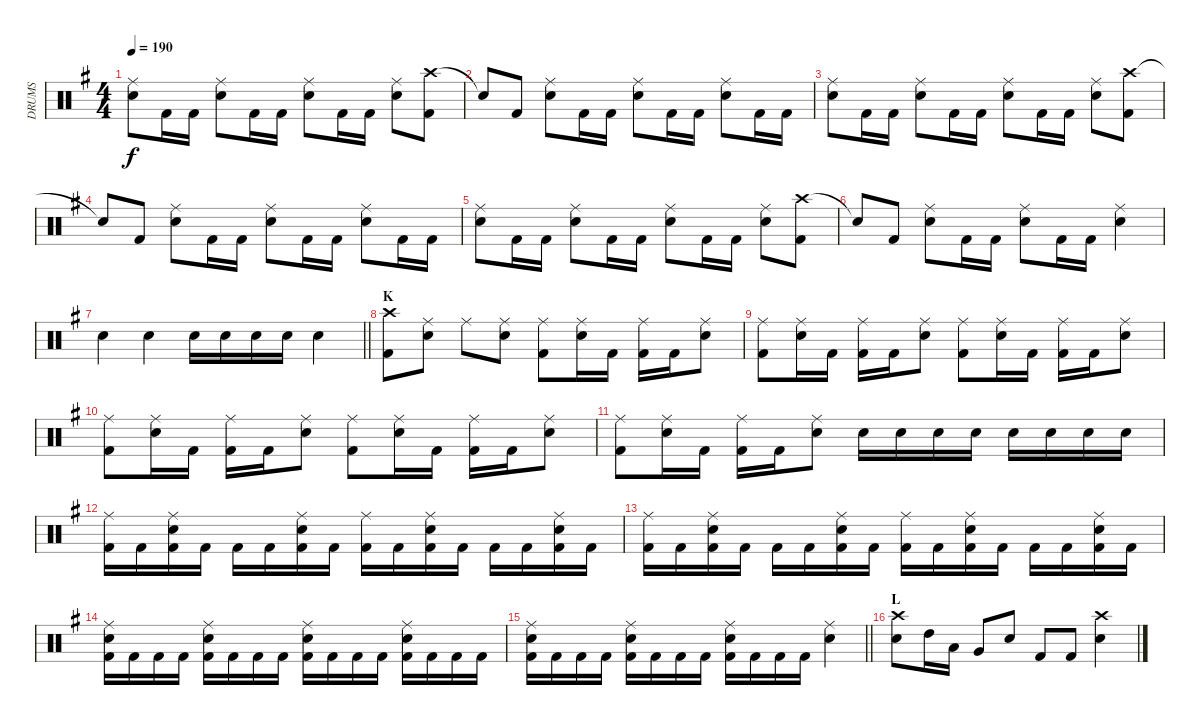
\track ("DRUMS" "DRUMS") {instrument percussion}
\staff {score}
\articulation defaults
\ts (4 4)
\tempo 190
\clef neutral
\ks g
("Ride (middle)" "Snare (hit) 2").8{dy f} "Kick (hit) 2".16 "Kick (hit) 2".16 ("Ride (middle)" "Snare (hit) 2").8 "Kick (hit) 2".16 "Kick (hit) 2".16 ("Ride (middle)" "Snare (hit) 2").8 "Kick (hit) 2".16 "Kick (hit) 2".16 ("Ride (middle)" "Snare (hit) 2").8 ("Crash high (hit)" "Kick (hit) 2").8 |
"Snare (hit)"{t}.8 "Kick (hit) 2".8 ("Ride (middle)" "Snare (hit) 2").8 "Kick (hit) 2".16 "Kick (hit) 2".16 ("Ride (middle)" "Snare (hit) 2").8 "Kick (hit) 2".16 "Kick (hit) 2".16 ("Ride (middle)" "Snare (hit) 2").8 "Kick (hit) 2".16 "Kick (hit) 2".16 |
("Ride (middle)" "Snare (hit) 2").8 "Kick (hit) 2".16 "Kick (hit) 2".16 ("Ride (middle)" "Snare (hit) 2").8 "Kick (hit) 2".16 "Kick (hit) 2".16 ("Ride (middle)" "Snare (hit) 2").8 "Kick (hit) 2".16 "Kick (hit) 2".16 ("Ride (middle)" "Snare (hit) 2").8 ("Crash high (hit)" "Kick (hit) 2").8 |
"Snare (hit)"{t}.8 "Kick (hit) 2".8 ("Ride (middle)" "Snare (hit) 2").8 "Kick (hit) 2".16 "Kick (hit) 2".16 ("Ride (middle)" "Snare (hit) 2").8 "Kick (hit) 2".16 "Kick (hit) 2".16 ("Ride (middle)" "Snare (hit) 2").8 "Kick (hit) 2".16 "Kick (hit) 2".16 |
("Ride (middle)" "Snare (hit) 2").8 "Kick (hit) 2".16 "Kick (hit) 2".16 ("Ride (middle)" "Snare (hit) 2").8 "Kick (hit) 2".16 "Kick (hit) 2".16 ("Ride (middle)" "Snare (hit) 2").8 "Kick (hit) 2".16 "Kick (hit) 2".16 ("Ride (middle)" "Snare (hit) 2").8 ("Crash high (hit)" "Kick (hit) 2").8 |
"Snare (hit)"{t}.8 "Kick (hit) 2".8 ("Ride (middle)" "Snare (hit) 2").8 "Kick (hit) 2".16 "Kick (hit) 2".16 ("Ride (middle)" "Snare (hit) 2").8 "Kick (hit) 2".16 "Kick (hit) 2".16 ("Ride (middle)" "Snare (hit) 2").4 |
\barLineRight lightlight "Snare (hit) 2".4 "Snare (hit) 2".4 "Snare (hit) 2".16 "Snare (hit) 2".16 "Snare (hit) 2".16 "Snare (hit) 2".16 "Snare (hit) 2".4
|
\section ("" "K")
("Crash high (hit)" "Kick (hit) 2").8 ("Ride (middle)" "Snare (hit) 2").8 "Ride (middle)".8 ("Ride (middle)" "Snare (hit) 2").8 ("Ride (middle)" "Kick (hit) 2").8 ("Ride (middle)" "Snare (hit) 2").16 "Kick (hit) 2".16 ("Ride (middle)" "Kick (hit) 2").16 "Kick (hit) 2".16 ("Ride (middle)" "Snare (hit) 2").8 |
("Ride (middle)" "Kick (hit) 2").8 ("Ride (middle)" "Snare (hit) 2").16 "Kick (hit) 2".16 ("Ride (middle)" "Kick (hit) 2").16 "Kick (hit) 2".16 ("Ride (middle)" "Snare (hit) 2").8 ("Ride (middle)" "Kick (hit) 2").8 ("Ride (middle)" "Snare (hit) 2").16 "Kick (hit) 2".16 ("Ride (middle)" "Kick (hit) 2").16 "Kick (hit) 2".16 ("Ride (middle)" "Snare (hit) 2").8 |
("Ride (middle)" "Kick (hit) 2").8 ("Ride (middle)" "Snare (hit) 2").16 "Kick (hit) 2".16 ("Ride (middle)" "Kick (hit) 2").16 "Kick (hit) 2".16 ("Ride (middle)" "Snare (hit) 2").8 ("Ride (middle)" "Kick (hit) 2").8 ("Ride (middle)" "Snare (hit) 2").16 "Kick (hit) 2".16 ("Ride (middle)" "Kick (hit) 2").16 "Kick (hit) 2".16 ("Ride (middle)" "Snare (hit) 2").8 |
("Ride (middle)" "Kick (hit) 2").8 ("Ride (middle)" "Snare (hit) 2").16 "Kick (hit) 2".16 ("Ride (middle)" "Kick (hit) 2").16 "Kick (hit) 2".16 ("Ride (middle)" "Snare (hit) 2").8 "Snare (hit) 2".16 "Snare (hit) 2".16 "Snare (hit) 2".16 "Snare (hit) 2".16 "Snare (hit) 2".16 "Snare (hit) 2".16 "Snare (hit) 2".16 "Snare (hit) 2".16 |
("Ride (middle)" "Kick (hit) 2").16 "Kick (hit) 2".16 ("Ride (middle)" "Kick (hit) 2" "Snare (hit) 2").16 "Kick (hit) 2".16 "Kick (hit) 2".16 "Kick (hit) 2".16 ("Ride (middle)" "Kick (hit) 2" "Snare (hit) 2").16 "Kick (hit) 2".16 ("Ride (middle)" "Kick (hit) 2").16 "Kick (hit) 2".16 ("Ride (middle)" "Kick (hit) 2" "Snare (hit) 2").16 "Kick (hit) 2".16 "Kick (hit) 2".16 "Kick (hit) 2".16 ("Ride (middle)" "Kick (hit) 2" "Snare (hit) 2").16 "Kick (hit) 2".16 |
("Ride (middle)" "Kick (hit) 2").16 "Kick (hit) 2".16 ("Ride (middle)" "Kick (hit) 2" "Snare (hit) 2").16 "Kick (hit) 2".16 "Kick (hit) 2".16 "Kick (hit) 2".16 ("Ride (middle)" "Kick (hit) 2" "Snare (hit) 2").16 "Kick (hit) 2".16 ("Ride (middle)" "Kick (hit) 2").16 "Kick (hit) 2".16 ("Ride (middle)" "Kick (hit) 2" "Snare (hit) 2").16 "Kick (hit) 2".16 "Kick (hit) 2".16 "Kick (hit) 2".16 ("Ride (middle)" "Kick (hit) 2" "Snare (hit) 2").16 "Kick (hit) 2".16 |
("Ride (middle)" "Kick (hit) 2" "Snare (hit) 2").16 "Kick (hit) 2".16 "Kick (hit) 2".16 "Kick (hit) 2".16 ("Ride (middle)" "Kick (hit) 2" "Snare (hit) 2").16 "Kick (hit) 2".16 "Kick (hit) 2".16 "Kick (hit) 2".16 ("Ride (middle)" "Kick (hit) 2" "Snare (hit) 2").16 "Kick (hit) 2".16 "Kick (hit) 2".16 "Kick (hit) 2".16 ("Ride (middle)" "Kick (hit) 2" "Snare (hit) 2").16 "Kick (hit) 2".16 "Kick (hit) 2".16 "Kick (hit) 2".16 |
\barLineRight lightlight
("Ride (middle)" "Kick (hit) 2" "Snare (hit) 2").16 "Kick (hit) 2".16 "Kick (hit) 2".16 "Kick (hit) 2".16 ("Ride (middle)" "Kick (hit) 2" "Snare (hit) 2").16 "Kick (hit) 2".16 "Kick (hit) 2".16 "Kick (hit) 2".16 ("Ride (middle)" "Kick (hit) 2" "Snare (hit) 2").16 "Kick (hit) 2".16 "Kick (hit) 2".16 "Kick (hit) 2".16 ("Ride (middle)" "Snare (hit) 2").4 |
\section ("" "L")
("Crash high (hit)" "Snare (hit) 2").8 "High Tom (hit)".16 "Low Tom (hit)".16 "Very Low Tom (hit)".8 "Snare (hit) 2".8 "Kick (hit) 2".8 "Kick (hit) 2".8 ("Crash high (hit)" "Snare (hit) 2").4
